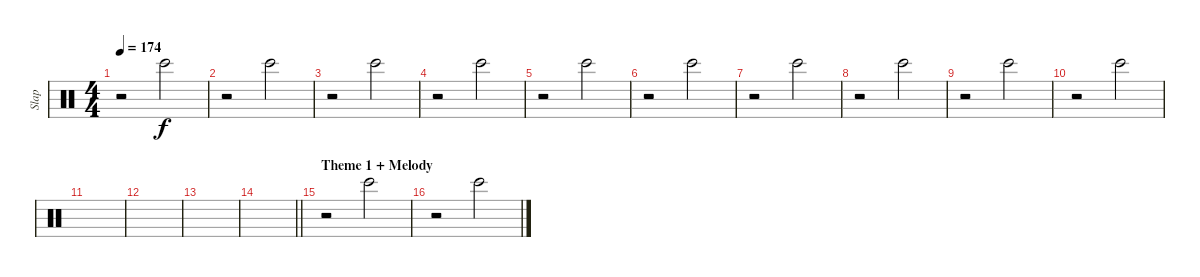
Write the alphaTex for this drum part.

\track ("Slap" "Slap") {instrument percussion}
\staff {score}
\articulation defaults
\ts (4 4)
\tempo 174
\clef neutral
\ks c
r.2{dy f} "Bongo High (hit)".2 |
r.2 "Bongo High (hit)".2 |
r.2 "Bongo High (hit)".2 |
r.2 "Bongo High (hit)".2 |
r.2 "Bongo High (hit)".2 |
r.2 "Bongo High (hit)".2 |
r.2 "Bongo High (hit)".2 |
r.2 "Bongo High (hit)".2 |
r.2 "Bongo High (hit)".2 |
r.2 "Bongo High (hit)".2 |
|
|
|
\barLineRight lightlight
|
\section ("" "Theme 1 + Melody")
r.2 "Bongo High (hit)".2 |
r.2 "Bongo High (hit)".2
